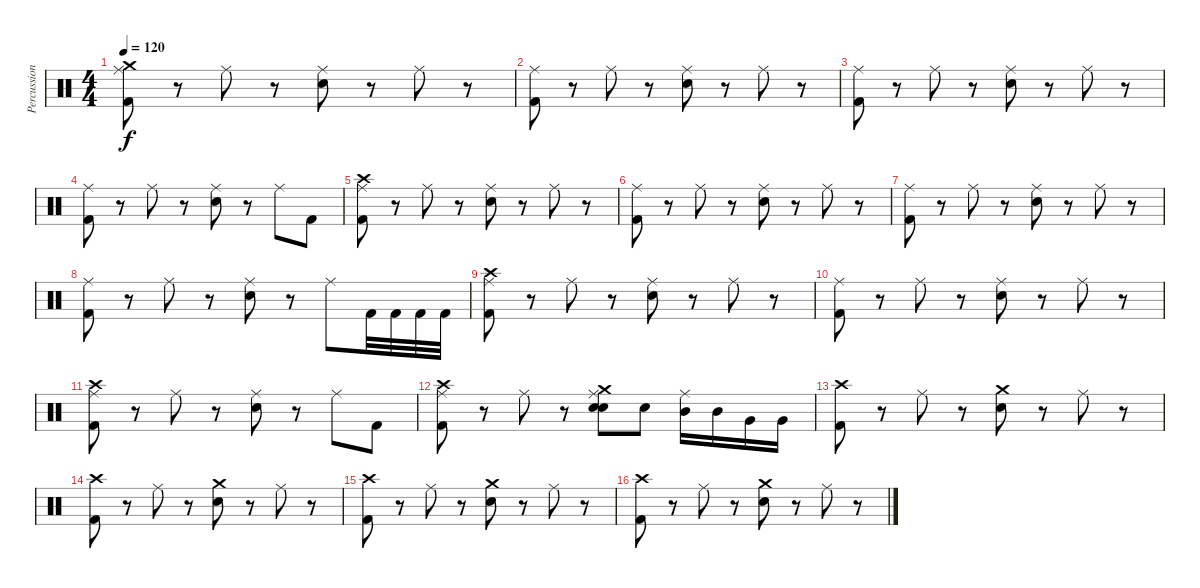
\track ("Percussion" "Percussion") {instrument percussion}
\staff {score}
\articulation defaults
\ts (4 4)
\tempo 120
\clef neutral
\ks c
("Crash medium (hit)" "Ride (middle)" "Kick (hit) 2").8{dy f} r.8 "Ride (middle)".8 r.8 ("Ride (middle)" "Snare (hit) 2").8 r.8 "Ride (middle)".8 r.8 |
("Ride (middle)" "Kick (hit) 2").8 r.8 "Ride (middle)".8 r.8 ("Ride (middle)" "Snare (hit) 2").8 r.8 "Ride (middle)".8 r.8 |
("Ride (middle)" "Kick (hit) 2").8 r.8 "Ride (middle)".8 r.8 ("Ride (middle)" "Snare (hit) 2").8 r.8 "Ride (middle)".8 r.8 |
("Ride (middle)" "Kick (hit) 2").8 r.8 "Ride (middle)".8 r.8 ("Ride (middle)" "Snare (hit) 2").8 r.8 "Ride (middle)".8 "Kick (hit) 2".8 |
("Crash high (hit)" "Ride (middle)" "Kick (hit) 2").8 r.8 "Ride (middle)".8 r.8 ("Ride (middle)" "Snare (hit) 2").8 r.8 "Ride (middle)".8 r.8 |
("Ride (middle)" "Kick (hit) 2").8 r.8 "Ride (middle)".8 r.8 ("Ride (middle)" "Snare (hit) 2").8 r.8 "Ride (middle)".8 r.8 |
("Ride (middle)" "Kick (hit) 2").8 r.8 "Ride (middle)".8 r.8 ("Ride (middle)" "Snare (hit) 2").8 r.8 "Ride (middle)".8 r.8 |
("Ride (middle)" "Kick (hit) 2").8 r.8 "Ride (middle)".8 r.8 ("Ride (middle)" "Snare (hit) 2").8 r.8 "Ride (middle)".8 "Kick (hit) 2".32 "Kick (hit) 2".32 "Kick (hit) 2".32 "Kick (hit) 2".32 |
("Crash high (hit)" "Ride (middle)" "Kick (hit) 2").8 r.8 "Ride (middle)".8 r.8 ("Ride (middle)" "Snare (hit) 2").8 r.8 "Ride (middle)".8 r.8 |
("Ride (middle)" "Kick (hit) 2").8 r.8 "Ride (middle)".8 r.8 ("Ride (middle)" "Snare (hit) 2").8 r.8 "Ride (middle)".8 r.8 |
("Crash high (hit)" "Ride (middle)" "Kick (hit) 2").8 r.8 "Ride (middle)".8 r.8 ("Ride (middle)" "Snare (hit) 2").8 r.8 "Ride (middle)".8 "Kick (hit) 2".8 |
("Crash high (hit)" "Ride (middle)" "Kick (hit) 2").8 r.8 "Ride (middle)".8 r.8 ("Crash medium (hit)" "Ride (middle)" "Snare (hit) 2" "Snare (hit) 2").8 "Snare (hit) 2".8 ("Ride (middle)" "Mid Tom (hit)").16 "Mid Tom (hit)".16 "Very Low Tom (hit)".16 "Very Low Tom (hit)".16 |
("Crash high (hit)" "Kick (hit) 2").8 r.8 "Ride (middle)".8 r.8 ("Crash medium (hit)" "Snare (hit) 2").8 r.8 "Ride (middle)".8 r.8 |
("Crash high (hit)" "Kick (hit) 2").8 r.8 "Ride (middle)".8 r.8 ("Crash medium (hit)" "Snare (hit) 2").8 r.8 "Ride (middle)".8 r.8 |
("Crash high (hit)" "Kick (hit) 2").8 r.8 "Ride (middle)".8 r.8 ("Crash medium (hit)" "Snare (hit) 2").8 r.8 "Ride (middle)".8 r.8 |
("Crash high (hit)" "Kick (hit) 2").8 r.8 "Ride (middle)".8 r.8 ("Crash medium (hit)" "Snare (hit) 2").8 r.8 "Ride (middle)".8 r.8
